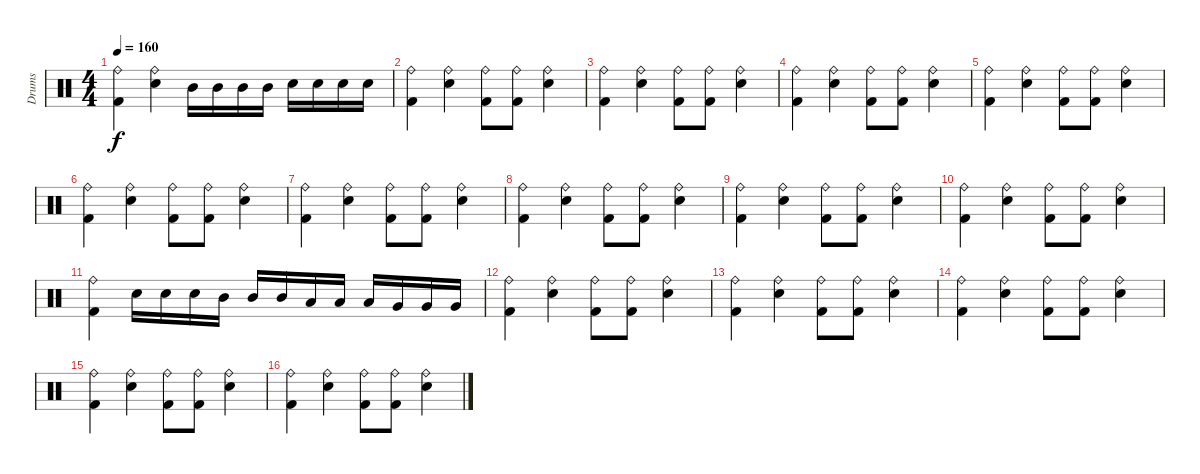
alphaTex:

\track ("Drums" "Drums") {instrument percussion}
\staff {score}
\articulation defaults
\ts (4 4)
\tempo 160
\clef neutral
\ks c
("Kick (hit) 2" "Ride (bell)").4{dy f} ("Electric Snare (hit)" "Ride (bell)").4 "Mid Tom (hit)".16 "Mid Tom (hit)".16 "Mid Tom (hit)".16 "Mid Tom (hit)".16 "Electric Snare (hit)".16 "Electric Snare (hit)".16 "Electric Snare (hit)".16 "Electric Snare (hit)".16 |
("Ride (bell)" "Kick (hit) 2").4 ("Electric Snare (hit)" "Ride (bell)").4 ("Kick (hit) 2" "Ride (bell)").8 ("Kick (hit) 2" "Ride (bell)").8 ("Electric Snare (hit)" "Ride (bell)").4 |
("Ride (bell)" "Kick (hit) 2").4 ("Electric Snare (hit)" "Ride (bell)").4 ("Kick (hit) 2" "Ride (bell)").8 ("Kick (hit) 2" "Ride (bell)").8 ("Electric Snare (hit)" "Ride (bell)").4 |
("Kick (hit) 2" "Ride (bell)").4 ("Electric Snare (hit)" "Ride (bell)").4 ("Kick (hit) 2" "Ride (bell)").8 ("Kick (hit) 2" "Ride (bell)").8 ("Electric Snare (hit)" "Ride (bell)").4 |
("Ride (bell)" "Kick (hit) 2").4 ("Electric Snare (hit)" "Ride (bell)").4 ("Kick (hit) 2" "Ride (bell)").8 ("Kick (hit) 2" "Ride (bell)").8 ("Electric Snare (hit)" "Ride (bell)").4 |
("Kick (hit) 2" "Ride (bell)").4 ("Electric Snare (hit)" "Ride (bell)").4 ("Kick (hit) 2" "Ride (bell)").8 ("Kick (hit) 2" "Ride (bell)").8 ("Electric Snare (hit)" "Ride (bell)").4 |
("Ride (bell)" "Kick (hit) 2").4 ("Electric Snare (hit)" "Ride (bell)").4 ("Kick (hit) 2" "Ride (bell)").8 ("Kick (hit) 2" "Ride (bell)").8 ("Electric Snare (hit)" "Ride (bell)").4 |
("Kick (hit) 2" "Ride (bell)").4 ("Electric Snare (hit)" "Ride (bell)").4 ("Kick (hit) 2" "Ride (bell)").8 ("Kick (hit) 2" "Ride (bell)").8 ("Electric Snare (hit)" "Ride (bell)").4 |
("Ride (bell)" "Kick (hit) 2").4 ("Electric Snare (hit)" "Ride (bell)").4 ("Kick (hit) 2" "Ride (bell)").8 ("Kick (hit) 2" "Ride (bell)").8 ("Electric Snare (hit)" "Ride (bell)").4 |
("Kick (hit) 2" "Ride (bell)").4 ("Electric Snare (hit)" "Ride (bell)").4 ("Kick (hit) 2" "Ride (bell)").8 ("Kick (hit) 2" "Ride (bell)").8 ("Electric Snare (hit)" "Ride (bell)").4 |
("Kick (hit) 2" "Ride (bell)").4 "Electric Snare (hit)".16 "Electric Snare (hit)".16 "Electric Snare (hit)".16 "Mid Tom (hit)".16 "Mid Tom (hit)".16 "Mid Tom (hit)".16 "Low Tom (hit)".16 "Low Tom (hit)".16 "Low Tom (hit)".16 "Very Low Tom (hit)".16 "Very Low Tom (hit)".16 "Very Low Tom (hit)".16 |
("Ride (bell)" "Kick (hit) 2").4 ("Electric Snare (hit)" "Ride (bell)").4 ("Kick (hit) 2" "Ride (bell)").8 ("Kick (hit) 2" "Ride (bell)").8 ("Electric Snare (hit)" "Ride (bell)").4 |
("Ride (bell)" "Kick (hit) 2").4 ("Electric Snare (hit)" "Ride (bell)").4 ("Kick (hit) 2" "Ride (bell)").8 ("Kick (hit) 2" "Ride (bell)").8 ("Electric Snare (hit)" "Ride (bell)").4 |
("Kick (hit) 2" "Ride (bell)").4 ("Electric Snare (hit)" "Ride (bell)").4 ("Kick (hit) 2" "Ride (bell)").8 ("Kick (hit) 2" "Ride (bell)").8 ("Electric Snare (hit)" "Ride (bell)").4 |
("Ride (bell)" "Kick (hit) 2").4 ("Electric Snare (hit)" "Ride (bell)").4 ("Kick (hit) 2" "Ride (bell)").8 ("Kick (hit) 2" "Ride (bell)").8 ("Electric Snare (hit)" "Ride (bell)").4 |
("Kick (hit) 2" "Ride (bell)").4 ("Electric Snare (hit)" "Ride (bell)").4 ("Kick (hit) 2" "Ride (bell)").8 ("Kick (hit) 2" "Ride (bell)").8 ("Electric Snare (hit)" "Ride (bell)").4
